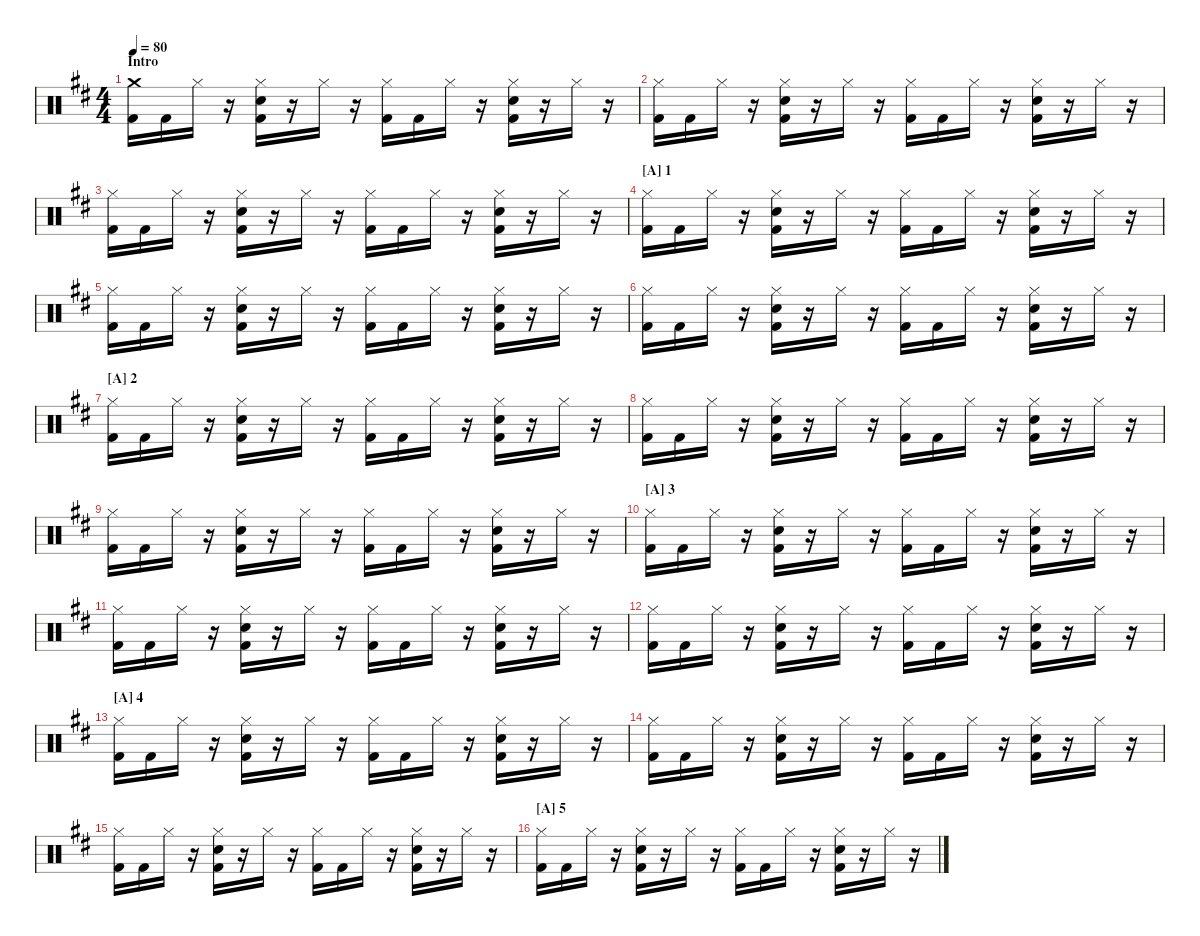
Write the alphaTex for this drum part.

\hideDynamics
\bracketExtendMode nobrackets
\singleTrackTrackNamePolicy hidden
\multiTrackTrackNamePolicy hidden
\otherSystemsTrackNameOrientation horizontal
\track ("Drumkit" "Drums") {instrument percussion}
\staff {score}
\articulation defaults
\ts (4 4)
\section ("" "Intro")
\tempo 80
\clef neutral
\ks d
("Crash medium (hit)"{acc forcenatural} "Kick (hit) 2"{acc forcenatural}).16{dy f beam Down} "Kick (hit) 2"{acc forcenatural}.16{beam Down} "Hi-Hat (closed)"{acc forcenatural}.16{beam Down} r.16{beam Down} ("Hi-Hat (closed)"{acc forcenatural} "Snare (hit) 2"{acc forcenatural} "Kick (hit) 2"{acc forcenatural}).16{beam Down} r.16{beam Down} "Hi-Hat (closed)"{acc forcenatural}.16{beam Down} r.16{beam Down} ("Hi-Hat (closed)"{acc forcenatural} "Kick (hit) 2"{acc forcenatural}).16{beam Down} "Kick (hit) 2"{acc forcenatural}.16{beam Down} "Hi-Hat (closed)"{acc forcenatural}.16{beam Down} r.16{beam Down} ("Hi-Hat (closed)"{acc forcenatural} "Snare (hit) 2"{acc forcenatural} "Kick (hit) 2"{acc forcenatural}).16{beam Down} r.16{beam Down} "Hi-Hat (closed)"{acc forcenatural}.16{beam Down} r.16{beam Down} |
("Hi-Hat (closed)"{acc forcenatural} "Kick (hit) 2"{acc forcenatural}).16{beam Down} "Kick (hit) 2"{acc forcenatural}.16{beam Down} "Hi-Hat (closed)"{acc forcenatural}.16{beam Down} r.16{beam Down} ("Hi-Hat (closed)"{acc forcenatural} "Snare (hit) 2"{acc forcenatural} "Kick (hit) 2"{acc forcenatural}).16{beam Down} r.16{beam Down} "Hi-Hat (closed)"{acc forcenatural}.16{beam Down} r.16{beam Down} ("Hi-Hat (closed)"{acc forcenatural} "Kick (hit) 2"{acc forcenatural}).16{beam Down} "Kick (hit) 2"{acc forcenatural}.16{beam Down} "Hi-Hat (closed)"{acc forcenatural}.16{beam Down} r.16{beam Down} ("Hi-Hat (closed)"{acc forcenatural} "Snare (hit) 2"{acc forcenatural} "Kick (hit) 2"{acc forcenatural}).16{beam Down} r.16{beam Down} "Hi-Hat (closed)"{acc forcenatural}.16{beam Down} r.16{beam Down} |
("Hi-Hat (closed)"{acc forcenatural} "Kick (hit) 2"{acc forcenatural}).16{beam Down} "Kick (hit) 2"{acc forcenatural}.16{beam Down} "Hi-Hat (closed)"{acc forcenatural}.16{beam Down} r.16{beam Down} ("Hi-Hat (closed)"{acc forcenatural} "Snare (hit) 2"{acc forcenatural} "Kick (hit) 2"{acc forcenatural}).16{beam Down} r.16{beam Down} "Hi-Hat (closed)"{acc forcenatural}.16{beam Down} r.16{beam Down} ("Hi-Hat (closed)"{acc forcenatural} "Kick (hit) 2"{acc forcenatural}).16{beam Down} "Kick (hit) 2"{acc forcenatural}.16{beam Down} "Hi-Hat (closed)"{acc forcenatural}.16{beam Down} r.16{beam Down} ("Hi-Hat (closed)"{acc forcenatural} "Snare (hit) 2"{acc forcenatural} "Kick (hit) 2"{acc forcenatural}).16{beam Down} r.16{beam Down} "Hi-Hat (closed)"{acc forcenatural}.16{beam Down} r.16{beam Down} |
\section ("A" "1")
("Hi-Hat (closed)"{acc forcenatural} "Kick (hit) 2"{acc forcenatural}).16{beam Down} "Kick (hit) 2"{acc forcenatural}.16{beam Down} "Hi-Hat (closed)"{acc forcenatural}.16{beam Down} r.16{beam Down} ("Hi-Hat (closed)"{acc forcenatural} "Snare (hit) 2"{acc forcenatural} "Kick (hit) 2"{acc forcenatural}).16{beam Down} r.16{beam Down} "Hi-Hat (closed)"{acc forcenatural}.16{beam Down} r.16{beam Down} ("Hi-Hat (closed)"{acc forcenatural} "Kick (hit) 2"{acc forcenatural}).16{beam Down} "Kick (hit) 2"{acc forcenatural}.16{beam Down} "Hi-Hat (closed)"{acc forcenatural}.16{beam Down} r.16{beam Down} ("Hi-Hat (closed)"{acc forcenatural} "Snare (hit) 2"{acc forcenatural} "Kick (hit) 2"{acc forcenatural}).16{beam Down} r.16{beam Down} "Hi-Hat (closed)"{acc forcenatural}.16{beam Down} r.16{beam Down} |
("Hi-Hat (closed)"{acc forcenatural} "Kick (hit) 2"{acc forcenatural}).16{beam Down} "Kick (hit) 2"{acc forcenatural}.16{beam Down} "Hi-Hat (closed)"{acc forcenatural}.16{beam Down} r.16{beam Down} ("Hi-Hat (closed)"{acc forcenatural} "Snare (hit) 2"{acc forcenatural} "Kick (hit) 2"{acc forcenatural}).16{beam Down} r.16{beam Down} "Hi-Hat (closed)"{acc forcenatural}.16{beam Down} r.16{beam Down} ("Hi-Hat (closed)"{acc forcenatural} "Kick (hit) 2"{acc forcenatural}).16{beam Down} "Kick (hit) 2"{acc forcenatural}.16{beam Down} "Hi-Hat (closed)"{acc forcenatural}.16{beam Down} r.16{beam Down} ("Hi-Hat (closed)"{acc forcenatural} "Snare (hit) 2"{acc forcenatural} "Kick (hit) 2"{acc forcenatural}).16{beam Down} r.16{beam Down} "Hi-Hat (closed)"{acc forcenatural}.16{beam Down} r.16{beam Down} |
("Hi-Hat (closed)"{acc forcenatural} "Kick (hit) 2"{acc forcenatural}).16{beam Down} "Kick (hit) 2"{acc forcenatural}.16{beam Down} "Hi-Hat (closed)"{acc forcenatural}.16{beam Down} r.16{beam Down} ("Hi-Hat (closed)"{acc forcenatural} "Snare (hit) 2"{acc forcenatural} "Kick (hit) 2"{acc forcenatural}).16{beam Down} r.16{beam Down} "Hi-Hat (closed)"{acc forcenatural}.16{beam Down} r.16{beam Down} ("Hi-Hat (closed)"{acc forcenatural} "Kick (hit) 2"{acc forcenatural}).16{beam Down} "Kick (hit) 2"{acc forcenatural}.16{beam Down} "Hi-Hat (closed)"{acc forcenatural}.16{beam Down} r.16{beam Down} ("Hi-Hat (closed)"{acc forcenatural} "Snare (hit) 2"{acc forcenatural} "Kick (hit) 2"{acc forcenatural}).16{beam Down} r.16{beam Down} "Hi-Hat (closed)"{acc forcenatural}.16{beam Down} r.16{beam Down} |
\section ("A" "2")
("Hi-Hat (closed)"{acc forcenatural} "Kick (hit) 2"{acc forcenatural}).16{beam Down} "Kick (hit) 2"{acc forcenatural}.16{beam Down} "Hi-Hat (closed)"{acc forcenatural}.16{beam Down} r.16{beam Down} ("Hi-Hat (closed)"{acc forcenatural} "Snare (hit) 2"{acc forcenatural} "Kick (hit) 2"{acc forcenatural}).16{beam Down} r.16{beam Down} "Hi-Hat (closed)"{acc forcenatural}.16{beam Down} r.16{beam Down} ("Hi-Hat (closed)"{acc forcenatural} "Kick (hit) 2"{acc forcenatural}).16{beam Down} "Kick (hit) 2"{acc forcenatural}.16{beam Down} "Hi-Hat (closed)"{acc forcenatural}.16{beam Down} r.16{beam Down} ("Hi-Hat (closed)"{acc forcenatural} "Snare (hit) 2"{acc forcenatural} "Kick (hit) 2"{acc forcenatural}).16{beam Down} r.16{beam Down} "Hi-Hat (closed)"{acc forcenatural}.16{beam Down} r.16{beam Down} |
("Hi-Hat (closed)"{acc forcenatural} "Kick (hit) 2"{acc forcenatural}).16{beam Down} "Kick (hit) 2"{acc forcenatural}.16{beam Down} "Hi-Hat (closed)"{acc forcenatural}.16{beam Down} r.16{beam Down} ("Hi-Hat (closed)"{acc forcenatural} "Snare (hit) 2"{acc forcenatural} "Kick (hit) 2"{acc forcenatural}).16{beam Down} r.16{beam Down} "Hi-Hat (closed)"{acc forcenatural}.16{beam Down} r.16{beam Down} ("Hi-Hat (closed)"{acc forcenatural} "Kick (hit) 2"{acc forcenatural}).16{beam Down} "Kick (hit) 2"{acc forcenatural}.16{beam Down} "Hi-Hat (closed)"{acc forcenatural}.16{beam Down} r.16{beam Down} ("Hi-Hat (closed)"{acc forcenatural} "Snare (hit) 2"{acc forcenatural} "Kick (hit) 2"{acc forcenatural}).16{beam Down} r.16{beam Down} "Hi-Hat (closed)"{acc forcenatural}.16{beam Down} r.16{beam Down} |
("Hi-Hat (closed)"{acc forcenatural} "Kick (hit) 2"{acc forcenatural}).16{beam Down} "Kick (hit) 2"{acc forcenatural}.16{beam Down} "Hi-Hat (closed)"{acc forcenatural}.16{beam Down} r.16{beam Down} ("Hi-Hat (closed)"{acc forcenatural} "Snare (hit) 2"{acc forcenatural} "Kick (hit) 2"{acc forcenatural}).16{beam Down} r.16{beam Down} "Hi-Hat (closed)"{acc forcenatural}.16{beam Down} r.16{beam Down} ("Hi-Hat (closed)"{acc forcenatural} "Kick (hit) 2"{acc forcenatural}).16{beam Down} "Kick (hit) 2"{acc forcenatural}.16{beam Down} "Hi-Hat (closed)"{acc forcenatural}.16{beam Down} r.16{beam Down} ("Hi-Hat (closed)"{acc forcenatural} "Snare (hit) 2"{acc forcenatural} "Kick (hit) 2"{acc forcenatural}).16{beam Down} r.16{beam Down} "Hi-Hat (closed)"{acc forcenatural}.16{beam Down} r.16{beam Down} |
\section ("A" "3")
("Hi-Hat (closed)"{acc forcenatural} "Kick (hit) 2"{acc forcenatural}).16{beam Down} "Kick (hit) 2"{acc forcenatural}.16{beam Down} "Hi-Hat (closed)"{acc forcenatural}.16{beam Down} r.16{beam Down} ("Hi-Hat (closed)"{acc forcenatural} "Snare (hit) 2"{acc forcenatural} "Kick (hit) 2"{acc forcenatural}).16{beam Down} r.16{beam Down} "Hi-Hat (closed)"{acc forcenatural}.16{beam Down} r.16{beam Down} ("Hi-Hat (closed)"{acc forcenatural} "Kick (hit) 2"{acc forcenatural}).16{beam Down} "Kick (hit) 2"{acc forcenatural}.16{beam Down} "Hi-Hat (closed)"{acc forcenatural}.16{beam Down} r.16{beam Down} ("Hi-Hat (closed)"{acc forcenatural} "Snare (hit) 2"{acc forcenatural} "Kick (hit) 2"{acc forcenatural}).16{beam Down} r.16{beam Down} "Hi-Hat (closed)"{acc forcenatural}.16{beam Down} r.16{beam Down} |
("Hi-Hat (closed)"{acc forcenatural} "Kick (hit) 2"{acc forcenatural}).16{beam Down} "Kick (hit) 2"{acc forcenatural}.16{beam Down} "Hi-Hat (closed)"{acc forcenatural}.16{beam Down} r.16{beam Down} ("Hi-Hat (closed)"{acc forcenatural} "Snare (hit) 2"{acc forcenatural} "Kick (hit) 2"{acc forcenatural}).16{beam Down} r.16{beam Down} "Hi-Hat (closed)"{acc forcenatural}.16{beam Down} r.16{beam Down} ("Hi-Hat (closed)"{acc forcenatural} "Kick (hit) 2"{acc forcenatural}).16{beam Down} "Kick (hit) 2"{acc forcenatural}.16{beam Down} "Hi-Hat (closed)"{acc forcenatural}.16{beam Down} r.16{beam Down} ("Hi-Hat (closed)"{acc forcenatural} "Snare (hit) 2"{acc forcenatural} "Kick (hit) 2"{acc forcenatural}).16{beam Down} r.16{beam Down} "Hi-Hat (closed)"{acc forcenatural}.16{beam Down} r.16{beam Down} |
("Hi-Hat (closed)"{acc forcenatural} "Kick (hit) 2"{acc forcenatural}).16{beam Down} "Kick (hit) 2"{acc forcenatural}.16{beam Down} "Hi-Hat (closed)"{acc forcenatural}.16{beam Down} r.16{beam Down} ("Hi-Hat (closed)"{acc forcenatural} "Snare (hit) 2"{acc forcenatural} "Kick (hit) 2"{acc forcenatural}).16{beam Down} r.16{beam Down} "Hi-Hat (closed)"{acc forcenatural}.16{beam Down} r.16{beam Down} ("Hi-Hat (closed)"{acc forcenatural} "Kick (hit) 2"{acc forcenatural}).16{beam Down} "Kick (hit) 2"{acc forcenatural}.16{beam Down} "Hi-Hat (closed)"{acc forcenatural}.16{beam Down} r.16{beam Down} ("Hi-Hat (closed)"{acc forcenatural} "Snare (hit) 2"{acc forcenatural} "Kick (hit) 2"{acc forcenatural}).16{beam Down} r.16{beam Down} "Hi-Hat (closed)"{acc forcenatural}.16{beam Down} r.16{beam Down} |
\section ("A" "4")
("Hi-Hat (closed)"{acc forcenatural} "Kick (hit) 2"{acc forcenatural}).16{beam Down} "Kick (hit) 2"{acc forcenatural}.16{beam Down} "Hi-Hat (closed)"{acc forcenatural}.16{beam Down} r.16{beam Down} ("Hi-Hat (closed)"{acc forcenatural} "Snare (hit) 2"{acc forcenatural} "Kick (hit) 2"{acc forcenatural}).16{beam Down} r.16{beam Down} "Hi-Hat (closed)"{acc forcenatural}.16{beam Down} r.16{beam Down} ("Hi-Hat (closed)"{acc forcenatural} "Kick (hit) 2"{acc forcenatural}).16{beam Down} "Kick (hit) 2"{acc forcenatural}.16{beam Down} "Hi-Hat (closed)"{acc forcenatural}.16{beam Down} r.16{beam Down} ("Hi-Hat (closed)"{acc forcenatural} "Snare (hit) 2"{acc forcenatural} "Kick (hit) 2"{acc forcenatural}).16{beam Down} r.16{beam Down} "Hi-Hat (closed)"{acc forcenatural}.16{beam Down} r.16{beam Down} |
("Hi-Hat (closed)"{acc forcenatural} "Kick (hit) 2"{acc forcenatural}).16{beam Down} "Kick (hit) 2"{acc forcenatural}.16{beam Down} "Hi-Hat (closed)"{acc forcenatural}.16{beam Down} r.16{beam Down} ("Hi-Hat (closed)"{acc forcenatural} "Snare (hit) 2"{acc forcenatural} "Kick (hit) 2"{acc forcenatural}).16{beam Down} r.16{beam Down} "Hi-Hat (closed)"{acc forcenatural}.16{beam Down} r.16{beam Down} ("Hi-Hat (closed)"{acc forcenatural} "Kick (hit) 2"{acc forcenatural}).16{beam Down} "Kick (hit) 2"{acc forcenatural}.16{beam Down} "Hi-Hat (closed)"{acc forcenatural}.16{beam Down} r.16{beam Down} ("Hi-Hat (closed)"{acc forcenatural} "Snare (hit) 2"{acc forcenatural} "Kick (hit) 2"{acc forcenatural}).16{beam Down} r.16{beam Down} "Hi-Hat (closed)"{acc forcenatural}.16{beam Down} r.16{beam Down} |
("Hi-Hat (closed)"{acc forcenatural} "Kick (hit) 2"{acc forcenatural}).16{beam Down} "Kick (hit) 2"{acc forcenatural}.16{beam Down} "Hi-Hat (closed)"{acc forcenatural}.16{beam Down} r.16{beam Down} ("Hi-Hat (closed)"{acc forcenatural} "Snare (hit) 2"{acc forcenatural} "Kick (hit) 2"{acc forcenatural}).16{beam Down} r.16{beam Down} "Hi-Hat (closed)"{acc forcenatural}.16{beam Down} r.16{beam Down} ("Hi-Hat (closed)"{acc forcenatural} "Kick (hit) 2"{acc forcenatural}).16{beam Down} "Kick (hit) 2"{acc forcenatural}.16{beam Down} "Hi-Hat (closed)"{acc forcenatural}.16{beam Down} r.16{beam Down} ("Hi-Hat (closed)"{acc forcenatural} "Snare (hit) 2"{acc forcenatural} "Kick (hit) 2"{acc forcenatural}).16{beam Down} r.16{beam Down} "Hi-Hat (closed)"{acc forcenatural}.16{beam Down} r.16{beam Down} |
\section ("A" "5")
("Hi-Hat (closed)"{acc forcenatural} "Kick (hit) 2"{acc forcenatural}).16{beam Down} "Kick (hit) 2"{acc forcenatural}.16{beam Down} "Hi-Hat (closed)"{acc forcenatural}.16{beam Down} r.16{beam Down} ("Hi-Hat (closed)"{acc forcenatural} "Snare (hit) 2"{acc forcenatural} "Kick (hit) 2"{acc forcenatural}).16{beam Down} r.16{beam Down} "Hi-Hat (closed)"{acc forcenatural}.16{beam Down} r.16{beam Down} ("Hi-Hat (closed)"{acc forcenatural} "Kick (hit) 2"{acc forcenatural}).16{beam Down} "Kick (hit) 2"{acc forcenatural}.16{beam Down} "Hi-Hat (closed)"{acc forcenatural}.16{beam Down} r.16{beam Down} ("Hi-Hat (closed)"{acc forcenatural} "Snare (hit) 2"{acc forcenatural} "Kick (hit) 2"{acc forcenatural}).16{beam Down} r.16{beam Down} "Hi-Hat (closed)"{acc forcenatural}.16{beam Down} r.16{beam Down}
